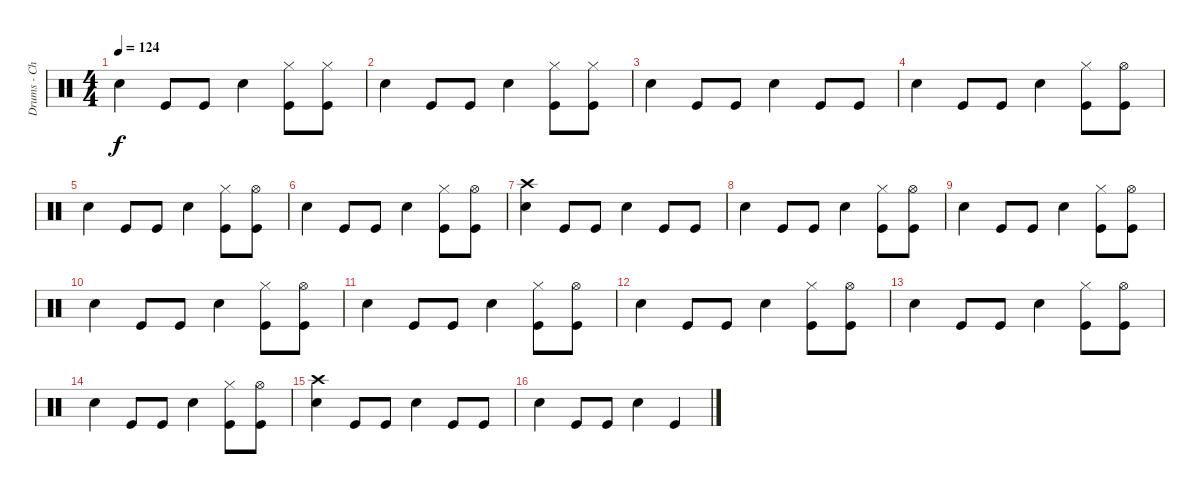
\track ("Drums - Chris Frantz" "Drums - Ch") {instrument percussion}
\staff {score}
\articulation defaults
\ts (4 4)
\tempo 124
\clef neutral
\ks c "Snare (hit) 2".4{dy f} "Kick (hit)".8 "Kick (hit)".8 "Snare (hit) 2".4
("Kick (hit)" "Hi-Hat (closed)").8 ("Kick (hit)" "Hi-Hat (closed)").8 |
"Snare (hit) 2".4 "Kick (hit)".8 "Kick (hit)".8 "Snare (hit) 2".4 ("Kick (hit)" "Hi-Hat (closed)").8 ("Kick (hit)" "Hi-Hat (closed)").8 |
"Snare (hit) 2".4 "Kick (hit)".8 "Kick (hit)".8 "Snare (hit) 2".4 "Kick (hit)".8 "Kick (hit)".8 |
"Snare (hit) 2".4 "Kick (hit)".8 "Kick (hit)".8 "Snare (hit) 2".4 ("Kick (hit)" "Hi-Hat (closed)").8 ("Kick (hit)" "Hi-Hat (open)").8 |
"Snare (hit) 2".4 "Kick (hit)".8 "Kick (hit)".8 "Snare (hit) 2".4 ("Kick (hit)" "Hi-Hat (closed)").8 ("Kick (hit)" "Hi-Hat (open)").8 |
"Snare (hit) 2".4 "Kick (hit)".8 "Kick (hit)".8 "Snare (hit) 2".4 ("Kick (hit)" "Hi-Hat (closed)").8 ("Kick (hit)" "Hi-Hat (open)").8 |
("Snare (hit) 2" "Crash high (hit)").4 "Kick (hit)".8 "Kick (hit)".8 "Snare (hit) 2".4 "Kick (hit)".8 "Kick (hit)".8 |
"Snare (hit) 2".4 "Kick (hit)".8 "Kick (hit)".8 "Snare (hit) 2".4 ("Kick (hit)" "Hi-Hat (closed)").8 ("Kick (hit)" "Hi-Hat (open)").8 |
"Snare (hit) 2".4 "Kick (hit)".8 "Kick (hit)".8 "Snare (hit) 2".4 ("Kick (hit)" "Hi-Hat (closed)").8 ("Kick (hit)" "Hi-Hat (open)").8 |
"Snare (hit) 2".4 "Kick (hit)".8 "Kick (hit)".8 "Snare (hit) 2".4 ("Kick (hit)" "Hi-Hat (closed)").8 ("Kick (hit)" "Hi-Hat (open)").8 |
"Snare (hit) 2".4 "Kick (hit)".8 "Kick (hit)".8 "Snare (hit) 2".4 ("Kick (hit)" "Hi-Hat (closed)").8 ("Kick (hit)" "Hi-Hat (open)").8 |
"Snare (hit) 2".4 "Kick (hit)".8 "Kick (hit)".8 "Snare (hit) 2".4 ("Kick (hit)" "Hi-Hat (closed)").8 ("Kick (hit)" "Hi-Hat (open)").8 |
"Snare (hit) 2".4 "Kick (hit)".8 "Kick (hit)".8 "Snare (hit) 2".4 ("Kick (hit)" "Hi-Hat (closed)").8 ("Kick (hit)" "Hi-Hat (open)").8 |
"Snare (hit) 2".4 "Kick (hit)".8 "Kick (hit)".8 "Snare (hit) 2".4 ("Kick (hit)" "Hi-Hat (closed)").8 ("Kick (hit)" "Hi-Hat (open)").8 |
("Snare (hit) 2" "Crash high (hit)").4 "Kick (hit)".8 "Kick (hit)".8 "Snare (hit) 2".4 "Kick (hit)".8 "Kick (hit)".8 |
"Snare (hit) 2".4 "Kick (hit)".8 "Kick (hit)".8 "Snare (hit) 2".4 "Kick (hit)".4
